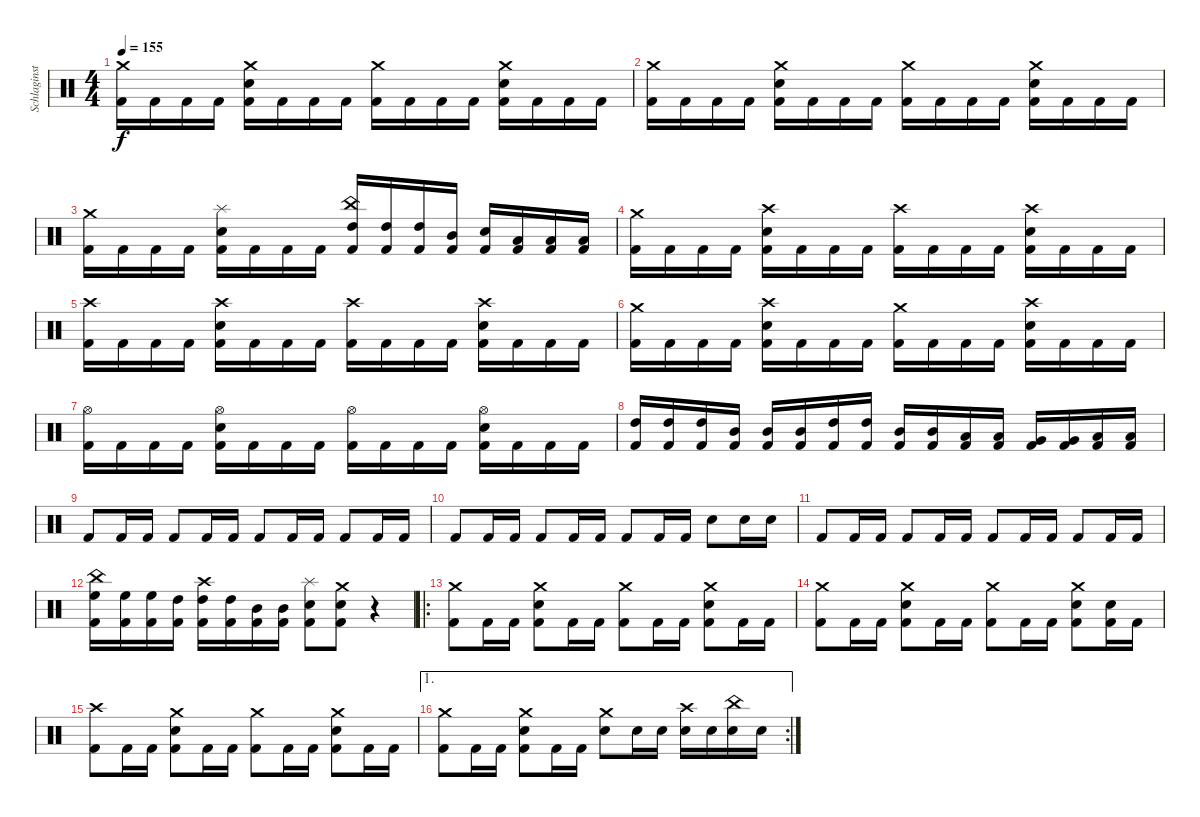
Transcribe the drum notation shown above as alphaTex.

\track ("Schlaginstrumente - Auswahl" "Schlaginst") {instrument percussion}
\staff {score}
\articulation defaults
\ts (4 4)
\tempo 155
\clef neutral
\ks c
("Crash medium (hit)" "Kick (hit) 2").16{dy f} "Kick (hit) 2".16 "Kick (hit) 2".16 "Kick (hit) 2".16 ("Crash medium (hit)" "Electric Snare (hit)" "Kick (hit) 2").16 "Kick (hit) 2".16 "Kick (hit) 2".16 "Kick (hit) 2".16 ("Crash medium (hit)" "Kick (hit) 2").16 "Kick (hit) 2".16 "Kick (hit) 2".16 "Kick (hit) 2".16 ("Crash medium (hit)" "Electric Snare (hit)" "Kick (hit) 2").16 "Kick (hit) 2".16 "Kick (hit) 2".16 "Kick (hit) 2".16 |
("Crash medium (hit)" "Kick (hit) 2").16 "Kick (hit) 2".16 "Kick (hit) 2".16 "Kick (hit) 2".16 ("Crash medium (hit)" "Electric Snare (hit)" "Kick (hit) 2").16 "Kick (hit) 2".16 "Kick (hit) 2".16 "Kick (hit) 2".16 ("Crash medium (hit)" "Kick (hit) 2").16 "Kick (hit) 2".16 "Kick (hit) 2".16 "Kick (hit) 2".16 ("Crash medium (hit)" "Electric Snare (hit)" "Kick (hit) 2").16 "Kick (hit) 2".16 "Kick (hit) 2".16 "Kick (hit) 2".16 |
("Crash medium (hit)" "Kick (hit) 2").16 "Kick (hit) 2".16 "Kick (hit) 2".16 "Kick (hit) 2".16 ("Splash (hit)" "Electric Snare (hit)" "Kick (hit) 2").16 "Kick (hit) 2".16 "Kick (hit) 2".16 "Kick (hit) 2".16 ("China (hit)" "High Tom (hit)" "Kick (hit) 2").16 ("High Tom (hit)" "Kick (hit) 2").16 ("High Tom (hit)" "Kick (hit) 2").16 ("Mid Tom (hit)" "Kick (hit) 2").16 ("Electric Snare (hit)" "Kick (hit) 2").16 ("Low Tom (hit)" "Kick (hit) 2").16 ("Low Tom (hit)" "Kick (hit) 2").16 ("Low Tom (hit)" "Kick (hit) 2").16 |
("Crash medium (hit)" "Kick (hit) 2").16 "Kick (hit) 2".16 "Kick (hit) 2".16 "Kick (hit) 2".16 ("Crash high (hit)" "Electric Snare (hit)" "Kick (hit) 2").16 "Kick (hit) 2".16 "Kick (hit) 2".16 "Kick (hit) 2".16 ("Crash high (hit)" "Kick (hit) 2").16 "Kick (hit) 2".16 "Kick (hit) 2".16 "Kick (hit) 2".16 ("Crash high (hit)" "Electric Snare (hit)" "Kick (hit) 2").16 "Kick (hit) 2".16 "Kick (hit) 2".16 "Kick (hit) 2".16 |
("Crash high (hit)" "Kick (hit) 2").16 "Kick (hit) 2".16 "Kick (hit) 2".16 "Kick (hit) 2".16 ("Crash high (hit)" "Electric Snare (hit)" "Kick (hit) 2").16 "Kick (hit) 2".16 "Kick (hit) 2".16 "Kick (hit) 2".16 ("Crash high (hit)" "Kick (hit) 2").16 "Kick (hit) 2".16 "Kick (hit) 2".16 "Kick (hit) 2".16 ("Crash high (hit)" "Electric Snare (hit)" "Kick (hit) 2").16 "Kick (hit) 2".16 "Kick (hit) 2".16 "Kick (hit) 2".16 |
("Crash medium (hit)" "Kick (hit) 2").16 "Kick (hit) 2".16 "Kick (hit) 2".16 "Kick (hit) 2".16 ("Crash high (hit)" "Electric Snare (hit)" "Kick (hit) 2").16 "Kick (hit) 2".16 "Kick (hit) 2".16 "Kick (hit) 2".16 ("Crash medium (hit)" "Kick (hit) 2").16 "Kick (hit) 2".16 "Kick (hit) 2".16 "Kick (hit) 2".16 ("Crash high (hit)" "Electric Snare (hit)" "Kick (hit) 2").16 "Kick (hit) 2".16 "Kick (hit) 2".16 "Kick (hit) 2".16 |
("Hi-Hat (open)" "Kick (hit) 2").16 "Kick (hit) 2".16 "Kick (hit) 2".16 "Kick (hit) 2".16 ("Hi-Hat (open)" "Electric Snare (hit)" "Kick (hit) 2").16 "Kick (hit) 2".16 "Kick (hit) 2".16 "Kick (hit) 2".16 ("Hi-Hat (open)" "Kick (hit) 2").16 "Kick (hit) 2".16 "Kick (hit) 2".16 "Kick (hit) 2".16 ("Hi-Hat (open)" "Electric Snare (hit)" "Kick (hit) 2").16 "Kick (hit) 2".16 "Kick (hit) 2".16 "Kick (hit) 2".16 |
("High Tom (hit)" "Kick (hit) 2").16 ("High Tom (hit)" "Kick (hit) 2").16 ("High Tom (hit)" "Kick (hit) 2").16 ("Mid Tom (hit)" "Kick (hit) 2").16 ("Mid Tom (hit)" "Kick (hit) 2").16 ("Mid Tom (hit)" "Kick (hit) 2").16 ("High Tom (hit)" "Kick (hit) 2").16 ("High Tom (hit)" "Kick (hit) 2").16 ("Mid Tom (hit)" "Kick (hit) 2").16 ("Mid Tom (hit)" "Kick (hit) 2").16 ("Low Tom (hit)" "Kick (hit) 2").16 ("Low Tom (hit)" "Kick (hit) 2").16 ("Very Low Tom (hit)" "Kick (hit) 2").16 ("Very Low Tom (hit)" "Kick (hit) 2").16 ("Low Floor Tom (hit)" "Kick (hit) 2").16 ("Low Floor Tom (hit)" "Kick (hit) 2").16 |
"Kick (hit) 2".8 "Kick (hit) 2".16 "Kick (hit) 2".16 "Kick (hit) 2".8 "Kick (hit) 2".16 "Kick (hit) 2".16 "Kick (hit) 2".8 "Kick (hit) 2".16 "Kick (hit) 2".16 "Kick (hit) 2".8 "Kick (hit) 2".16 "Kick (hit) 2".16 |
"Kick (hit) 2".8 "Kick (hit) 2".16 "Kick (hit) 2".16 "Kick (hit) 2".8 "Kick (hit) 2".16 "Kick (hit) 2".16 "Kick (hit) 2".8 "Kick (hit) 2".16 "Kick (hit) 2".16 "Electric Snare (hit)".8 "Electric Snare (hit)".16 "Electric Snare (hit)".16 |
"Kick (hit) 2".8 "Kick (hit) 2".16 "Kick (hit) 2".16 "Kick (hit) 2".8 "Kick (hit) 2".16 "Kick (hit) 2".16 "Kick (hit) 2".8 "Kick (hit) 2".16 "Kick (hit) 2".16 "Kick (hit) 2".8 "Kick (hit) 2".16 "Kick (hit) 2".16 |
("China (hit)" "High Floor Tom (hit)" "Kick (hit) 2").16 ("High Floor Tom (hit)" "Kick (hit) 2").16 ("High Floor Tom (hit)" "Kick (hit) 2").16 ("High Tom (hit)" "Kick (hit) 2").16 ("Crash high (hit)" "High Tom (hit)" "Kick (hit) 2").16 ("High Tom (hit)" "Kick (hit) 2").16 ("Mid Tom (hit)" "Kick (hit) 2").16 ("Mid Tom (hit)" "Kick (hit) 2").16 ("Splash (hit)" "Electric Snare (hit)" "Kick (hit) 2").8 ("Crash medium (hit)" "Electric Snare (hit)" "Kick (hit) 2").8 r.4 |
\ro
("Crash medium (hit)" "Kick (hit) 2").8 "Kick (hit) 2".16 "Kick (hit) 2".16 ("Crash medium (hit)" "Electric Snare (hit)" "Kick (hit) 2").8 "Kick (hit) 2".16 "Kick (hit) 2".16 ("Crash medium (hit)" "Kick (hit) 2").8 "Kick (hit) 2".16 "Kick (hit) 2".16 ("Crash medium (hit)" "Electric Snare (hit)" "Kick (hit) 2").8 "Kick (hit) 2".16 "Kick (hit) 2".16 |
("Crash medium (hit)" "Kick (hit) 2").8 "Kick (hit) 2".16 "Kick (hit) 2".16 ("Crash medium (hit)" "Electric Snare (hit)" "Kick (hit) 2").8 "Kick (hit) 2".16 "Kick (hit) 2".16 ("Crash medium (hit)" "Kick (hit) 2").8 "Kick (hit) 2".16 "Kick (hit) 2".16 ("Crash medium (hit)" "Electric Snare (hit)" "Kick (hit) 2").8 ("Electric Snare (hit)" "Kick (hit) 2").16 "Kick (hit) 2".16 |
("Crash high (hit)" "Kick (hit) 2").8 "Kick (hit) 2".16 "Kick (hit) 2".16 ("Crash medium (hit)" "Electric Snare (hit)" "Kick (hit) 2").8 "Kick (hit) 2".16 "Kick (hit) 2".16 ("Crash medium (hit)" "Kick (hit) 2").8 "Kick (hit) 2".16 "Kick (hit) 2".16 ("Crash medium (hit)" "Electric Snare (hit)" "Kick (hit) 2").8 "Kick (hit) 2".16 "Kick (hit) 2".16 |
\ae 1
\rc 2
("Crash medium (hit)" "Kick (hit) 2").8 "Kick (hit) 2".16 "Kick (hit) 2".16 ("Crash medium (hit)" "Electric Snare (hit)" "Kick (hit) 2").8 "Kick (hit) 2".16 "Kick (hit) 2".16 ("Crash medium (hit)" "Electric Snare (hit)").8 "Electric Snare (hit)".16 "Electric Snare (hit)".16 ("Crash high (hit)" "Electric Snare (hit)").16 "Electric Snare (hit)".16 ("China (hit)" "Electric Snare (hit)").16 "Electric Snare (hit)".16
